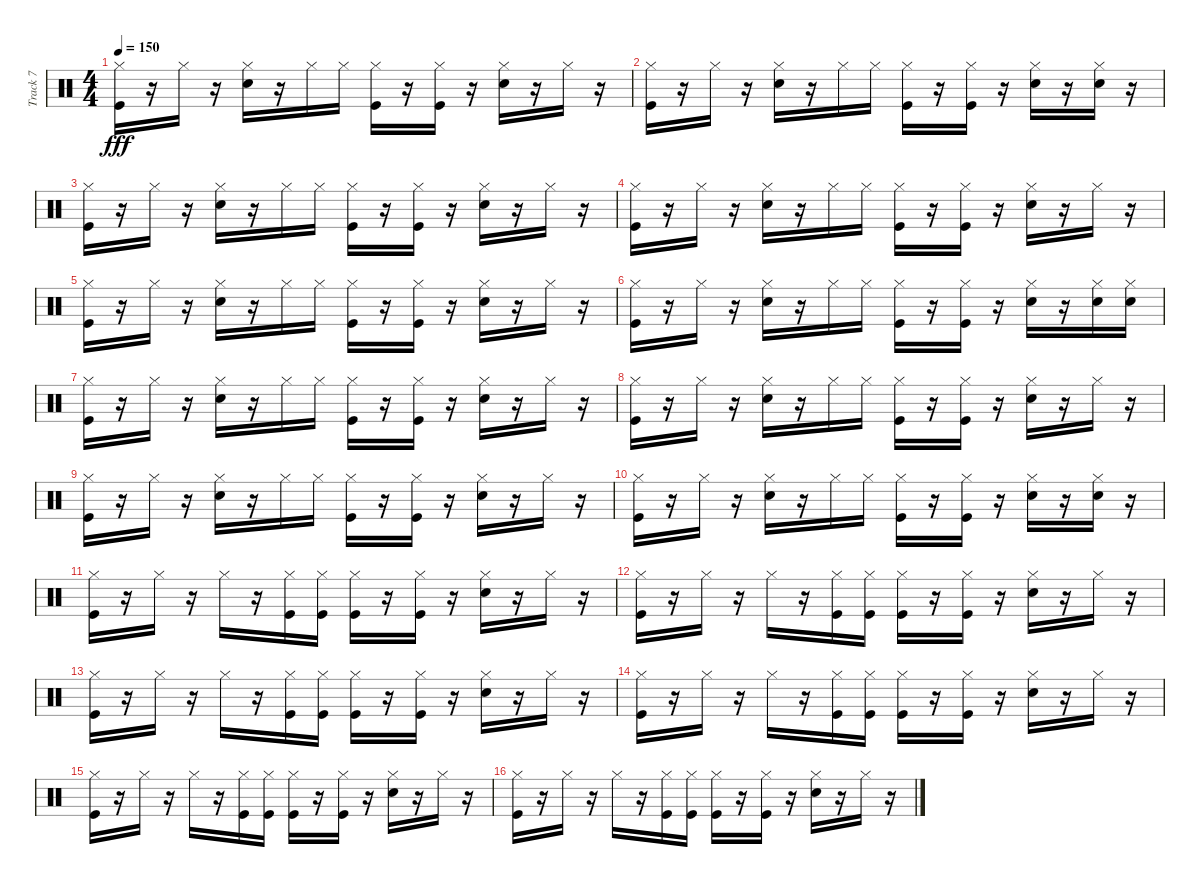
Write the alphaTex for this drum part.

\track ("Track 7" "Track 7") {instrument percussion}
\staff {score}
\articulation defaults
\ts (4 4)
\tempo 150
\clef neutral
\ks c
("Kick (hit)" "Hi-Hat (closed)").16{dy fff} r.16 "Hi-Hat (closed)".16 r.16 ("Snare (hit) 2" "Hi-Hat (closed)").16 r.16 "Hi-Hat (closed)".16 "Hi-Hat (closed)".16 ("Kick (hit)" "Hi-Hat (closed)").16 r.16 ("Kick (hit)" "Hi-Hat (closed)").16 r.16 ("Snare (hit) 2" "Hi-Hat (closed)").16 r.16 "Hi-Hat (closed)".16 r.16 |
("Kick (hit)" "Hi-Hat (closed)").16 r.16 "Hi-Hat (closed)".16 r.16 ("Snare (hit) 2" "Hi-Hat (closed)").16 r.16 "Hi-Hat (closed)".16 "Hi-Hat (closed)".16 ("Kick (hit)" "Hi-Hat (closed)").16 r.16 ("Kick (hit)" "Hi-Hat (closed)").16 r.16 ("Snare (hit) 2" "Hi-Hat (closed)").16 r.16 ("Snare (hit) 2" "Hi-Hat (closed)").16 r.16 |
("Kick (hit)" "Hi-Hat (closed)").16 r.16 "Hi-Hat (closed)".16 r.16 ("Snare (hit) 2" "Hi-Hat (closed)").16 r.16 "Hi-Hat (closed)".16 "Hi-Hat (closed)".16 ("Kick (hit)" "Hi-Hat (closed)").16 r.16 ("Kick (hit)" "Hi-Hat (closed)").16 r.16 ("Snare (hit) 2" "Hi-Hat (closed)").16 r.16 "Hi-Hat (closed)".16 r.16 |
("Kick (hit)" "Hi-Hat (closed)").16 r.16 "Hi-Hat (closed)".16 r.16 ("Snare (hit) 2" "Hi-Hat (closed)").16 r.16 "Hi-Hat (closed)".16 "Hi-Hat (closed)".16 ("Kick (hit)" "Hi-Hat (closed)").16 r.16 ("Kick (hit)" "Hi-Hat (closed)").16 r.16 ("Snare (hit) 2" "Hi-Hat (closed)").16 r.16 "Hi-Hat (closed)".16 r.16 |
("Kick (hit)" "Hi-Hat (closed)").16 r.16 "Hi-Hat (closed)".16 r.16 ("Snare (hit) 2" "Hi-Hat (closed)").16 r.16 "Hi-Hat (closed)".16 "Hi-Hat (closed)".16 ("Kick (hit)" "Hi-Hat (closed)").16 r.16 ("Kick (hit)" "Hi-Hat (closed)").16 r.16 ("Snare (hit) 2" "Hi-Hat (closed)").16 r.16 "Hi-Hat (closed)".16 r.16 |
("Kick (hit)" "Hi-Hat (closed)").16 r.16 "Hi-Hat (closed)".16 r.16 ("Snare (hit) 2" "Hi-Hat (closed)").16 r.16 "Hi-Hat (closed)".16 "Hi-Hat (closed)".16 ("Kick (hit)" "Hi-Hat (closed)").16 r.16 ("Kick (hit)" "Hi-Hat (closed)").16 r.16 ("Snare (hit) 2" "Hi-Hat (closed)").16 r.16 ("Snare (hit) 2" "Hi-Hat (closed)").16 ("Snare (hit) 2" "Hi-Hat (closed)").16 |
("Kick (hit)" "Hi-Hat (closed)").16 r.16 "Hi-Hat (closed)".16 r.16 ("Snare (hit) 2" "Hi-Hat (closed)").16 r.16 "Hi-Hat (closed)".16 "Hi-Hat (closed)".16 ("Kick (hit)" "Hi-Hat (closed)").16 r.16 ("Kick (hit)" "Hi-Hat (closed)").16 r.16 ("Snare (hit) 2" "Hi-Hat (closed)").16 r.16 "Hi-Hat (closed)".16 r.16 |
("Kick (hit)" "Hi-Hat (closed)").16 r.16 "Hi-Hat (closed)".16 r.16 ("Snare (hit) 2" "Hi-Hat (closed)").16 r.16 "Hi-Hat (closed)".16 "Hi-Hat (closed)".16 ("Kick (hit)" "Hi-Hat (closed)").16 r.16 ("Kick (hit)" "Hi-Hat (closed)").16 r.16 ("Snare (hit) 2" "Hi-Hat (closed)").16 r.16 "Hi-Hat (closed)".16 r.16 |
("Kick (hit)" "Hi-Hat (closed)").16 r.16 "Hi-Hat (closed)".16 r.16 ("Snare (hit) 2" "Hi-Hat (closed)").16 r.16 "Hi-Hat (closed)".16 "Hi-Hat (closed)".16 ("Kick (hit)" "Hi-Hat (closed)").16 r.16 ("Kick (hit)" "Hi-Hat (closed)").16 r.16 ("Snare (hit) 2" "Hi-Hat (closed)").16 r.16 "Hi-Hat (closed)".16 r.16 |
("Kick (hit)" "Hi-Hat (closed)").16 r.16 "Hi-Hat (closed)".16 r.16 ("Snare (hit) 2" "Hi-Hat (closed)").16 r.16 "Hi-Hat (closed)".16 "Hi-Hat (closed)".16 ("Kick (hit)" "Hi-Hat (closed)").16 r.16 ("Kick (hit)" "Hi-Hat (closed)").16 r.16 ("Snare (hit) 2" "Hi-Hat (closed)").16 r.16 ("Snare (hit) 2" "Hi-Hat (closed)").16 r.16 |
("Kick (hit)" "Hi-Hat (closed)").16 r.16 "Hi-Hat (closed)".16 r.16 "Hi-Hat (closed)".16 r.16 ("Kick (hit)" "Hi-Hat (closed)").16 ("Kick (hit)" "Hi-Hat (closed)").16 ("Kick (hit)" "Hi-Hat (closed)").16 r.16 ("Kick (hit)" "Hi-Hat (closed)").16 r.16 ("Snare (hit) 2" "Hi-Hat (closed)").16 r.16 "Hi-Hat (closed)".16 r.16 |
("Kick (hit)" "Hi-Hat (closed)").16 r.16 "Hi-Hat (closed)".16 r.16 "Hi-Hat (closed)".16 r.16 ("Kick (hit)" "Hi-Hat (closed)").16 ("Kick (hit)" "Hi-Hat (closed)").16 ("Kick (hit)" "Hi-Hat (closed)").16 r.16 ("Kick (hit)" "Hi-Hat (closed)").16 r.16 ("Snare (hit) 2" "Hi-Hat (closed)").16 r.16 "Hi-Hat (closed)".16 r.16 |
("Kick (hit)" "Hi-Hat (closed)").16 r.16 "Hi-Hat (closed)".16 r.16 "Hi-Hat (closed)".16 r.16 ("Kick (hit)" "Hi-Hat (closed)").16 ("Kick (hit)" "Hi-Hat (closed)").16 ("Kick (hit)" "Hi-Hat (closed)").16 r.16 ("Kick (hit)" "Hi-Hat (closed)").16 r.16 ("Snare (hit) 2" "Hi-Hat (closed)").16 r.16 "Hi-Hat (closed)".16 r.16 |
("Kick (hit)" "Hi-Hat (closed)").16 r.16 "Hi-Hat (closed)".16 r.16 "Hi-Hat (closed)".16 r.16 ("Kick (hit)" "Hi-Hat (closed)").16 ("Kick (hit)" "Hi-Hat (closed)").16 ("Kick (hit)" "Hi-Hat (closed)").16 r.16 ("Kick (hit)" "Hi-Hat (closed)").16 r.16 ("Snare (hit) 2" "Hi-Hat (closed)").16 r.16 "Hi-Hat (closed)".16 r.16 |
("Kick (hit)" "Hi-Hat (closed)").16 r.16 "Hi-Hat (closed)".16 r.16 "Hi-Hat (closed)".16 r.16 ("Kick (hit)" "Hi-Hat (closed)").16 ("Kick (hit)" "Hi-Hat (closed)").16 ("Kick (hit)" "Hi-Hat (closed)").16 r.16 ("Kick (hit)" "Hi-Hat (closed)").16 r.16 ("Snare (hit) 2" "Hi-Hat (closed)").16 r.16 "Hi-Hat (closed)".16 r.16 |
("Kick (hit)" "Hi-Hat (closed)").16 r.16 "Hi-Hat (closed)".16 r.16 "Hi-Hat (closed)".16 r.16 ("Kick (hit)" "Hi-Hat (closed)").16 ("Kick (hit)" "Hi-Hat (closed)").16 ("Kick (hit)" "Hi-Hat (closed)").16 r.16 ("Kick (hit)" "Hi-Hat (closed)").16 r.16 ("Snare (hit) 2" "Hi-Hat (closed)").16 r.16 "Hi-Hat (closed)".16 r.16
